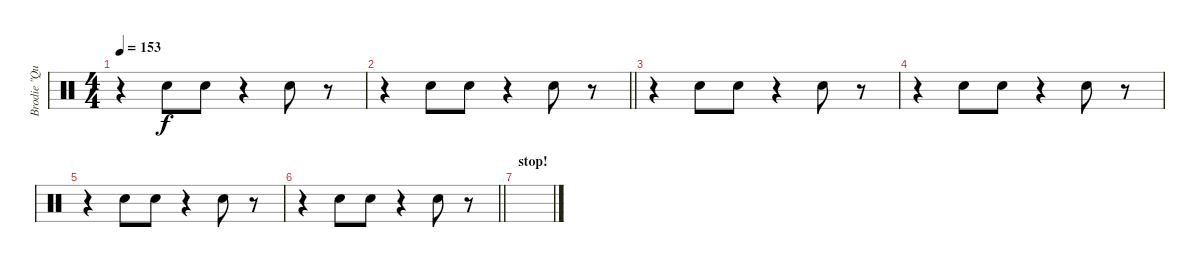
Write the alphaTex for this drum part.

\track ("Brodie \"Queen Be\" Dalle" "Brodie \"Qu") {instrument percussion}
\staff {score}
\articulation defaults
\ts (4 4)
\tempo 153
\clef neutral
\ks c
r.4{dy f} "Hand Clap (hit)".8 "Hand Clap (hit)".8 r.4 "Hand Clap (hit)".8 r.8 |
\barLineRight lightlight
r.4 "Hand Clap (hit)".8 "Hand Clap (hit)".8 r.4 "Hand Clap (hit)".8 r.8 |
\section ("" "")
r.4 "Hand Clap (hit)".8 "Hand Clap (hit)".8 r.4 "Hand Clap (hit)".8 r.8 |
r.4 "Hand Clap (hit)".8 "Hand Clap (hit)".8 r.4 "Hand Clap (hit)".8 r.8 |
r.4 "Hand Clap (hit)".8 "Hand Clap (hit)".8 r.4 "Hand Clap (hit)".8 r.8 |
\barLineRight lightlight
r.4 "Hand Clap (hit)".8 "Hand Clap (hit)".8 r.4 "Hand Clap (hit)".8 r.8 |
\section ("" "stop!")
